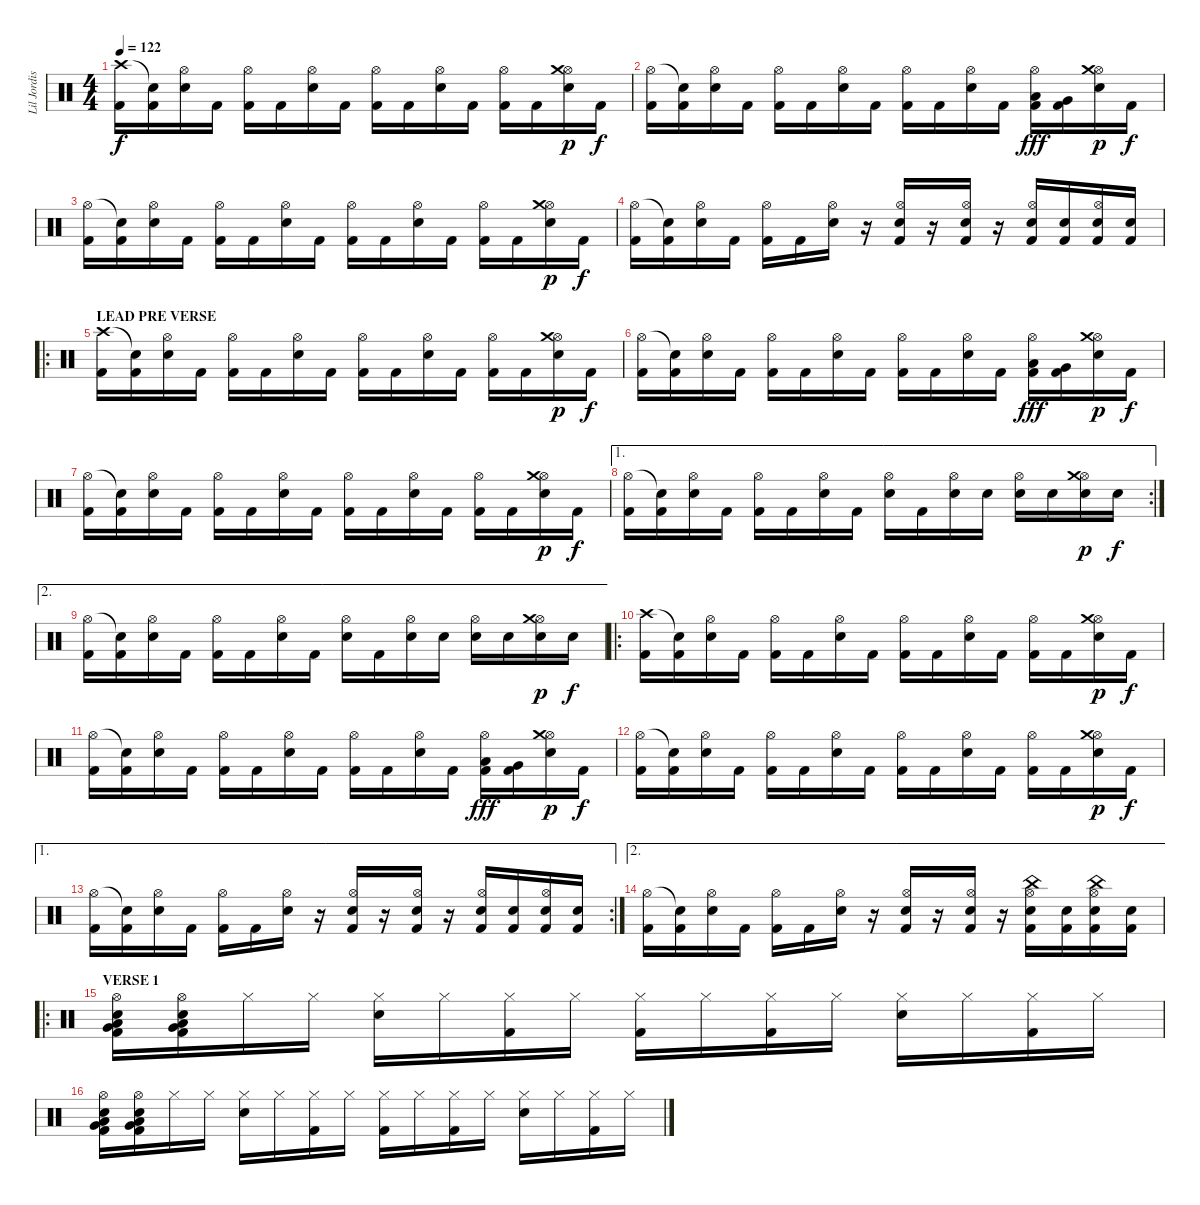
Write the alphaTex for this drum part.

\track ("Lil Jordison" "Lil Jordis") {instrument percussion}
\staff {score}
\articulation defaults
\ts (4 4)
\tempo 122
\clef neutral
\ks c
("Crash high (hit)" "Kick (hit) 2").16{dy f} ("Snare (hit)"{t} "Kick (hit) 2").16 ("Hi-Hat (open)" "Electric Snare (hit)").16 "Kick (hit) 2".16 ("Hi-Hat (open)" "Kick (hit) 2").16 "Kick (hit) 2".16 ("Hi-Hat (open)" "Electric Snare (hit)").16 "Kick (hit) 2".16 ("Hi-Hat (open)" "Kick (hit) 2").16 "Kick (hit) 2".16 ("Hi-Hat (open)" "Electric Snare (hit)").16 "Kick (hit) 2".16 ("Hi-Hat (open)" "Kick (hit) 2").16 "Kick (hit) 2".16 ("Hi-Hat (open)" "Crash medium (hit)" "Electric Snare (hit)").16{dy p} "Kick (hit) 2".16{dy f} |
("Hi-Hat (open)" "Kick (hit) 2").16 ("Snare (hit)"{t} "Kick (hit) 2").16 ("Hi-Hat (open)" "Electric Snare (hit)").16 "Kick (hit) 2".16 ("Hi-Hat (open)" "Kick (hit) 2").16 "Kick (hit) 2".16 ("Hi-Hat (open)" "Electric Snare (hit)").16 "Kick (hit) 2".16 ("Hi-Hat (open)" "Kick (hit) 2").16 "Kick (hit) 2".16 ("Hi-Hat (open)" "Electric Snare (hit)").16 "Kick (hit) 2".16 ("Hi-Hat (open)" "Low Tom (hit)" "Kick (hit) 2").16{dy fff} ("Very Low Tom (hit)" "Kick (hit) 2").16 ("Hi-Hat (open)" "Crash medium (hit)" "Electric Snare (hit)").16{dy p} "Kick (hit) 2".16{dy f} |
("Hi-Hat (open)" "Kick (hit) 2").16 ("Snare (hit)"{t} "Kick (hit) 2").16 ("Hi-Hat (open)" "Electric Snare (hit)").16 "Kick (hit) 2".16 ("Hi-Hat (open)" "Kick (hit) 2").16 "Kick (hit) 2".16 ("Hi-Hat (open)" "Electric Snare (hit)").16 "Kick (hit) 2".16 ("Hi-Hat (open)" "Kick (hit) 2").16 "Kick (hit) 2".16 ("Hi-Hat (open)" "Electric Snare (hit)").16 "Kick (hit) 2".16 ("Hi-Hat (open)" "Kick (hit) 2").16 "Kick (hit) 2".16 ("Hi-Hat (open)" "Crash medium (hit)" "Electric Snare (hit)").16{dy p} "Kick (hit) 2".16{dy f} |
("Hi-Hat (open)" "Kick (hit) 2").16 ("Snare (hit)"{t} "Kick (hit) 2").16 ("Hi-Hat (open)" "Electric Snare (hit)").16 "Kick (hit) 2".16 ("Hi-Hat (open)" "Kick (hit) 2").16 "Kick (hit) 2".16 ("Hi-Hat (open)" "Electric Snare (hit)").16 r.16 ("Hi-Hat (open)" "Kick (hit) 2" "Electric Snare (hit)").16 r.16 ("Hi-Hat (open)" "Kick (hit) 2" "Electric Snare (hit)").16 r.16 ("Hi-Hat (open)" "Kick (hit) 2" "Electric Snare (hit)").16 ("Kick (hit) 2" "Electric Snare (hit)").16 ("Hi-Hat (open)" "Kick (hit) 2" "Electric Snare (hit)").16 ("Kick (hit) 2" "Electric Snare (hit)").16 |
\ro
\section ("" "LEAD PRE VERSE")
("Crash high (hit)" "Kick (hit) 2").16 ("Snare (hit)"{t} "Kick (hit) 2").16 ("Hi-Hat (open)" "Electric Snare (hit)").16 "Kick (hit) 2".16 ("Hi-Hat (open)" "Kick (hit) 2").16 "Kick (hit) 2".16 ("Hi-Hat (open)" "Electric Snare (hit)").16 "Kick (hit) 2".16 ("Hi-Hat (open)" "Kick (hit) 2").16 "Kick (hit) 2".16 ("Hi-Hat (open)" "Electric Snare (hit)").16 "Kick (hit) 2".16 ("Hi-Hat (open)" "Kick (hit) 2").16 "Kick (hit) 2".16 ("Hi-Hat (open)" "Crash medium (hit)" "Electric Snare (hit)").16{dy p} "Kick (hit) 2".16{dy f} |
("Hi-Hat (open)" "Kick (hit) 2").16 ("Snare (hit)"{t} "Kick (hit) 2").16 ("Hi-Hat (open)" "Electric Snare (hit)").16 "Kick (hit) 2".16 ("Hi-Hat (open)" "Kick (hit) 2").16 "Kick (hit) 2".16 ("Hi-Hat (open)" "Electric Snare (hit)").16 "Kick (hit) 2".16 ("Hi-Hat (open)" "Kick (hit) 2").16 "Kick (hit) 2".16 ("Hi-Hat (open)" "Electric Snare (hit)").16 "Kick (hit) 2".16 ("Hi-Hat (open)" "Low Tom (hit)" "Kick (hit) 2").16{dy fff} ("Very Low Tom (hit)" "Kick (hit) 2").16 ("Hi-Hat (open)" "Crash medium (hit)" "Electric Snare (hit)").16{dy p} "Kick (hit) 2".16{dy f} |
("Hi-Hat (open)" "Kick (hit) 2").16 ("Snare (hit)"{t} "Kick (hit) 2").16 ("Hi-Hat (open)" "Electric Snare (hit)").16 "Kick (hit) 2".16 ("Hi-Hat (open)" "Kick (hit) 2").16 "Kick (hit) 2".16 ("Hi-Hat (open)" "Electric Snare (hit)").16 "Kick (hit) 2".16 ("Hi-Hat (open)" "Kick (hit) 2").16 "Kick (hit) 2".16 ("Hi-Hat (open)" "Electric Snare (hit)").16 "Kick (hit) 2".16 ("Hi-Hat (open)" "Kick (hit) 2").16 "Kick (hit) 2".16 ("Hi-Hat (open)" "Crash medium (hit)" "Electric Snare (hit)").16{dy p} "Kick (hit) 2".16{dy f} |
\ae 1
\rc 2
("Hi-Hat (open)" "Kick (hit) 2").16 ("Snare (hit)"{t} "Kick (hit) 2").16 ("Hi-Hat (open)" "Electric Snare (hit)").16 "Kick (hit) 2".16 ("Hi-Hat (open)" "Kick (hit) 2").16 "Kick (hit) 2".16 ("Hi-Hat (open)" "Electric Snare (hit)").16 "Kick (hit) 2".16 ("Hi-Hat (open)" "Electric Snare (hit)").16 "Kick (hit) 2".16 ("Hi-Hat (open)" "Electric Snare (hit)").16 "Electric Snare (hit)".16 ("Hi-Hat (open)" "Electric Snare (hit)").16 "Electric Snare (hit)".16 ("Hi-Hat (open)" "Crash medium (hit)" "Electric Snare (hit)").16{dy p} "Electric Snare (hit)".16{dy f} |
\ae 2
("Hi-Hat (open)" "Kick (hit) 2").16 ("Snare (hit)"{t} "Kick (hit) 2").16 ("Hi-Hat (open)" "Electric Snare (hit)").16 "Kick (hit) 2".16 ("Hi-Hat (open)" "Kick (hit) 2").16 "Kick (hit) 2".16 ("Hi-Hat (open)" "Electric Snare (hit)").16 "Kick (hit) 2".16 ("Hi-Hat (open)" "Electric Snare (hit)").16 "Kick (hit) 2".16 ("Hi-Hat (open)" "Electric Snare (hit)").16 "Electric Snare (hit)".16 ("Hi-Hat (open)" "Electric Snare (hit)").16 "Electric Snare (hit)".16 ("Hi-Hat (open)" "Crash medium (hit)" "Electric Snare (hit)").16{dy p} "Electric Snare (hit)".16{dy f} |
\ro
("Crash high (hit)" "Kick (hit) 2").16 ("Snare (hit)"{t} "Kick (hit) 2").16 ("Hi-Hat (open)" "Electric Snare (hit)").16 "Kick (hit) 2".16 ("Hi-Hat (open)" "Kick (hit) 2").16 "Kick (hit) 2".16 ("Hi-Hat (open)" "Electric Snare (hit)").16 "Kick (hit) 2".16 ("Hi-Hat (open)" "Kick (hit) 2").16 "Kick (hit) 2".16 ("Hi-Hat (open)" "Electric Snare (hit)").16 "Kick (hit) 2".16 ("Hi-Hat (open)" "Kick (hit) 2").16 "Kick (hit) 2".16 ("Hi-Hat (open)" "Crash medium (hit)" "Electric Snare (hit)").16{dy p} "Kick (hit) 2".16{dy f} |
("Hi-Hat (open)" "Kick (hit) 2").16 ("Snare (hit)"{t} "Kick (hit) 2").16 ("Hi-Hat (open)" "Electric Snare (hit)").16 "Kick (hit) 2".16 ("Hi-Hat (open)" "Kick (hit) 2").16 "Kick (hit) 2".16 ("Hi-Hat (open)" "Electric Snare (hit)").16 "Kick (hit) 2".16 ("Hi-Hat (open)" "Kick (hit) 2").16 "Kick (hit) 2".16 ("Hi-Hat (open)" "Electric Snare (hit)").16 "Kick (hit) 2".16 ("Hi-Hat (open)" "Low Tom (hit)" "Kick (hit) 2").16{dy fff} ("Very Low Tom (hit)" "Kick (hit) 2").16 ("Hi-Hat (open)" "Crash medium (hit)" "Electric Snare (hit)").16{dy p} "Kick (hit) 2".16{dy f} |
("Hi-Hat (open)" "Kick (hit) 2").16 ("Snare (hit)"{t} "Kick (hit) 2").16 ("Hi-Hat (open)" "Electric Snare (hit)").16 "Kick (hit) 2".16 ("Hi-Hat (open)" "Kick (hit) 2").16 "Kick (hit) 2".16 ("Hi-Hat (open)" "Electric Snare (hit)").16 "Kick (hit) 2".16 ("Hi-Hat (open)" "Kick (hit) 2").16 "Kick (hit) 2".16 ("Hi-Hat (open)" "Electric Snare (hit)").16 "Kick (hit) 2".16 ("Hi-Hat (open)" "Kick (hit) 2").16 "Kick (hit) 2".16 ("Hi-Hat (open)" "Crash medium (hit)" "Electric Snare (hit)").16{dy p} "Kick (hit) 2".16{dy f} |
\ae 1
\rc 2
("Hi-Hat (open)" "Kick (hit) 2").16 ("Snare (hit)"{t} "Kick (hit) 2").16 ("Hi-Hat (open)" "Electric Snare (hit)").16 "Kick (hit) 2".16 ("Hi-Hat (open)" "Kick (hit) 2").16 "Kick (hit) 2".16 ("Hi-Hat (open)" "Electric Snare (hit)").16 r.16 ("Hi-Hat (open)" "Kick (hit) 2" "Electric Snare (hit)").16 r.16 ("Hi-Hat (open)" "Kick (hit) 2" "Electric Snare (hit)").16 r.16 ("Hi-Hat (open)" "Kick (hit) 2" "Electric Snare (hit)").16 ("Kick (hit) 2" "Electric Snare (hit)").16 ("Hi-Hat (open)" "Kick (hit) 2" "Electric Snare (hit)").16 ("Kick (hit) 2" "Electric Snare (hit)").16 |
\ae 2
("Hi-Hat (open)" "Kick (hit) 2").16 ("Snare (hit)"{t} "Kick (hit) 2").16 ("Hi-Hat (open)" "Electric Snare (hit)").16 "Kick (hit) 2".16 ("Hi-Hat (open)" "Kick (hit) 2").16 "Kick (hit) 2".16 ("Hi-Hat (open)" "Electric Snare (hit)").16 r.16 ("Hi-Hat (open)" "Kick (hit) 2" "Electric Snare (hit)").16 r.16 ("Hi-Hat (open)" "Kick (hit) 2" "Electric Snare (hit)").16 r.16 ("Hi-Hat (open)" "China (hit)" "Kick (hit) 2" "Electric Snare (hit)").16 ("Kick (hit) 2" "Electric Snare (hit)").16 ("Hi-Hat (open)" "China (hit)" "Kick (hit) 2" "Electric Snare (hit)").16 ("Kick (hit) 2" "Electric Snare (hit)").16 |
\ro
\section ("" "VERSE 1")
("Very Low Tom (hit)" "Low Floor Tom (hit)" "Hi-Hat (open)" "Kick (hit) 2" "Electric Snare (hit)").16 ("Very Low Tom (hit)" "Low Floor Tom (hit)" "Hi-Hat (open)" "Kick (hit) 2" "Electric Snare (hit)").16 "Hi-Hat (closed)".16 "Hi-Hat (closed)".16 ("Hi-Hat (closed)" "Electric Snare (hit)").16 "Hi-Hat (closed)".16 ("Hi-Hat (closed)" "Kick (hit) 2").16 "Hi-Hat (closed)".16 ("Hi-Hat (closed)" "Kick (hit) 2").16 "Hi-Hat (closed)".16 ("Hi-Hat (closed)" "Kick (hit) 2").16 "Hi-Hat (closed)".16 ("Hi-Hat (closed)" "Electric Snare (hit)").16 "Hi-Hat (closed)".16 ("Hi-Hat (closed)" "Kick (hit) 2").16 "Hi-Hat (closed)".16 |
("Very Low Tom (hit)" "Low Floor Tom (hit)" "Hi-Hat (open)" "Kick (hit) 2" "Electric Snare (hit)").16 ("Very Low Tom (hit)" "Low Floor Tom (hit)" "Hi-Hat (open)" "Kick (hit) 2" "Electric Snare (hit)").16 "Hi-Hat (closed)".16 "Hi-Hat (closed)".16 ("Hi-Hat (closed)" "Electric Snare (hit)").16 "Hi-Hat (closed)".16 ("Hi-Hat (closed)" "Kick (hit) 2").16 "Hi-Hat (closed)".16 ("Hi-Hat (closed)" "Kick (hit) 2").16 "Hi-Hat (closed)".16 ("Hi-Hat (closed)" "Kick (hit) 2").16 "Hi-Hat (closed)".16 ("Hi-Hat (closed)" "Electric Snare (hit)").16 "Hi-Hat (closed)".16 ("Hi-Hat (closed)" "Kick (hit) 2").16 "Hi-Hat (closed)".16
